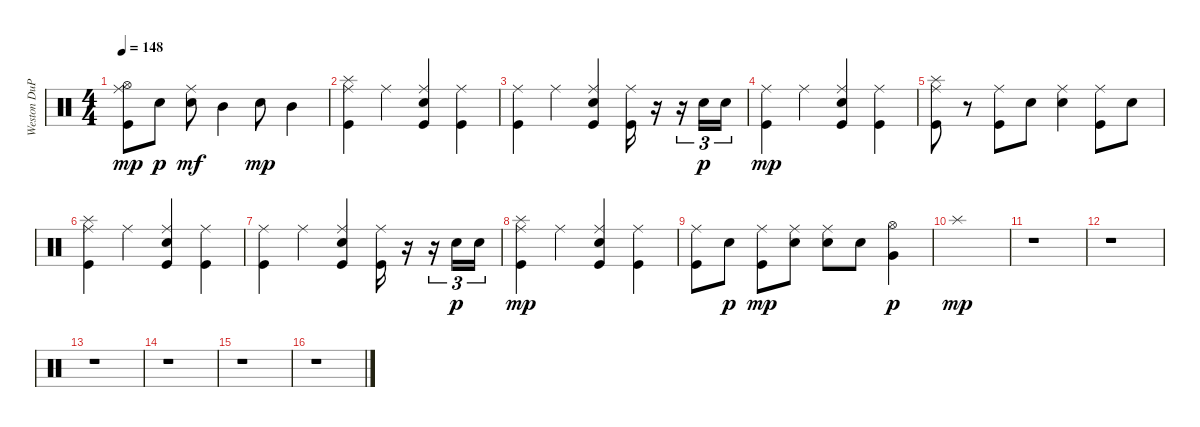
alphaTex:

\track ("Weston DuPree" "Weston DuP") {instrument percussion}
\staff {score}
\articulation defaults
\ts (4 4)
\tempo 148
\clef neutral
\ks c
("Hi-Hat (open)" "Kick (hit)" "Ride (middle)").8{dy mp} "Snare (hit) 2".8{dy p} ("Ride (middle)" "Electric Snare (hit)").8{dy mf} "Mid Tom (hit)".4 "Electric Snare (hit)".8{dy mp} "Mid Tom (hit)".4 |
("Splash (hit)" "Kick (hit)" "Ride (middle)").4 "Ride (middle)".4 ("Electric Snare (hit)" "Kick (hit)" "Ride (middle)").4 ("Ride (middle)" "Kick (hit)").4 |
("Ride (middle)" "Kick (hit)").4 "Ride (middle)".4 ("Ride (middle)" "Kick (hit)" "Electric Snare (hit)").4 ("Ride (middle)" "Kick (hit)").16 r.16 r.16{tu (3 2)} "Snare (hit) 2".16{tu (3 2) dy p} "Snare (hit) 2".16{tu (3 2)} |
("Kick (hit)" "Ride (middle)").4{dy mp} "Ride (middle)".4 ("Electric Snare (hit)" "Kick (hit)" "Ride (middle)").4 ("Ride (middle)" "Kick (hit)").4 |
("Splash (hit)" "Kick (hit)" "Ride (middle)").8 r.8 ("Ride (middle)" "Kick (hit)").8 "Electric Snare (hit)".8 ("Ride (middle)" "Electric Snare (hit)").4 ("Ride (middle)" "Kick (hit)").8 "Electric Snare (hit)".8 |
("Splash (hit)" "Kick (hit)" "Ride (middle)").4 "Ride (middle)".4 ("Electric Snare (hit)" "Kick (hit)" "Ride (middle)").4 ("Ride (middle)" "Kick (hit)").4 |
("Ride (middle)" "Kick (hit)").4 "Ride (middle)".4 ("Ride (middle)" "Kick (hit)" "Electric Snare (hit)").4 ("Ride (middle)" "Kick (hit)").16 r.16 r.16{tu (3 2)} "Snare (hit) 2".16{tu (3 2) dy p} "Snare (hit) 2".16{tu (3 2)} |
("Splash (hit)" "Kick (hit)" "Ride (middle)").4{dy mp} "Ride (middle)".4 ("Electric Snare (hit)" "Kick (hit)" "Ride (middle)").4 ("Ride (middle)" "Kick (hit)").4 |
("Ride (middle)" "Kick (hit)").8 "Snare (hit) 2".8{dy p} ("Ride (middle)" "Kick (hit)").8{dy mp} ("Ride (middle)" "Electric Snare (hit)").8 ("Ride (middle)" "Electric Snare (hit)").8 "Electric Snare (hit)".8 ("Hi-Hat (open)" "Very Low Tom (hit)").4{dy p} |
"Splash (hit)".1{dy mp} |
r.1 |
r.1 |
r.1 |
r.1 |
r.1 |
r.1
